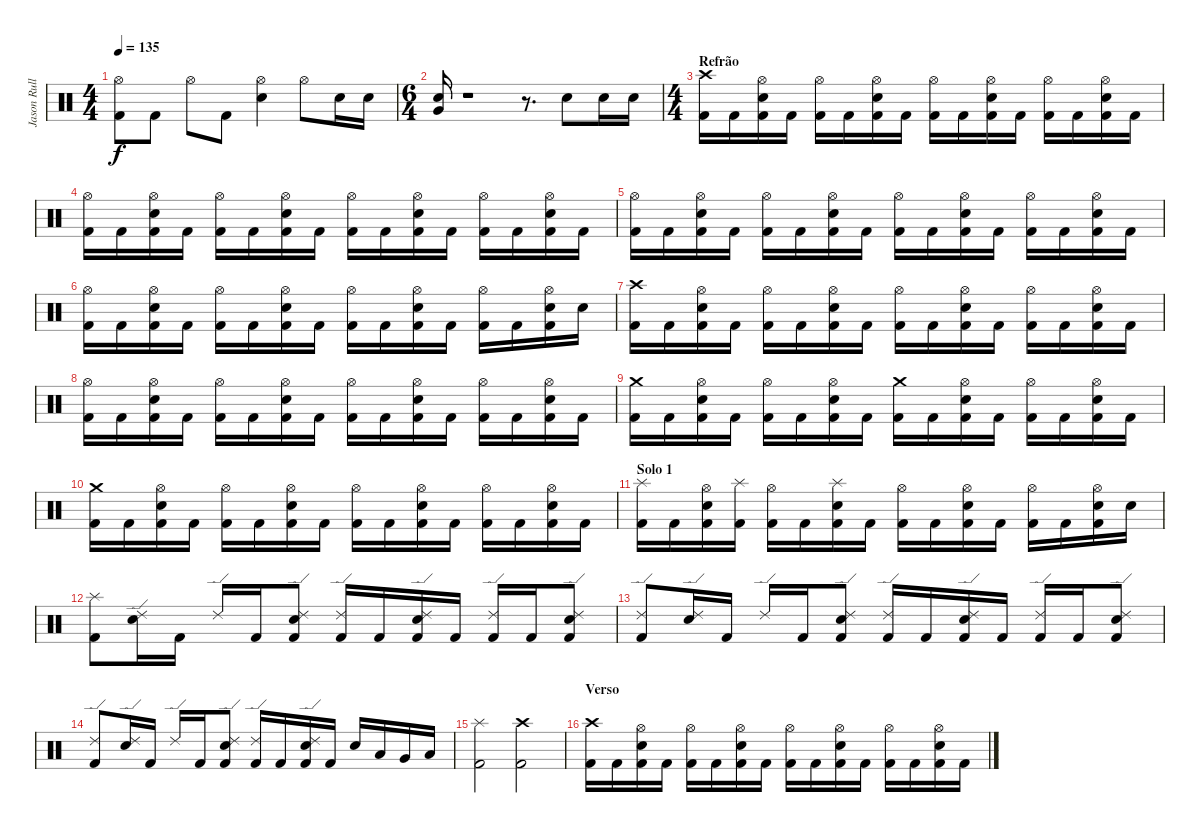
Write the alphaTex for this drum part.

\track ("Jason Rullo" "Jason Rull") {instrument percussion}
\staff {score}
\articulation defaults
\ts (4 4)
\tempo 135
\clef neutral
\ks c
("Kick (hit) 2" "Hi-Hat (open)").8{dy f} "Kick (hit) 2".8 "Hi-Hat (open)".8 "Kick (hit) 2".8 ("Electric Snare (hit)" "Hi-Hat (open)").4 "Hi-Hat (open)".8 "Electric Snare (hit)".16 "Electric Snare (hit)".16 |
\ts (6 4)
("Very Low Tom (hit)" "Electric Snare (hit)").16 r.1 r.8{d} "Electric Snare (hit)".8 "Electric Snare (hit)".16 "Electric Snare (hit)".16 |
\ts (4 4)
\section ("" "Refrão")
("Kick (hit) 2" "Crash high (hit)").16 "Kick (hit) 2".16 ("Hi-Hat (open)" "Electric Snare (hit)" "Kick (hit) 2").16 "Kick (hit) 2".16 ("Hi-Hat (open)" "Kick (hit) 2").16 "Kick (hit) 2".16 ("Hi-Hat (open)" "Electric Snare (hit)" "Kick (hit) 2").16 "Kick (hit) 2".16 ("Hi-Hat (open)" "Kick (hit) 2").16 "Kick (hit) 2".16 ("Hi-Hat (open)" "Electric Snare (hit)" "Kick (hit) 2").16 "Kick (hit) 2".16 ("Hi-Hat (open)" "Kick (hit) 2").16 "Kick (hit) 2".16 ("Hi-Hat (open)" "Electric Snare (hit)" "Kick (hit) 2").16 "Kick (hit) 2".16 |
("Kick (hit) 2" "Hi-Hat (open)").16 "Kick (hit) 2".16 ("Kick (hit) 2" "Electric Snare (hit)" "Hi-Hat (open)").16 "Kick (hit) 2".16 ("Kick (hit) 2" "Hi-Hat (open)").16 "Kick (hit) 2".16 ("Kick (hit) 2" "Electric Snare (hit)" "Hi-Hat (open)").16 "Kick (hit) 2".16 ("Kick (hit) 2" "Hi-Hat (open)").16 "Kick (hit) 2".16 ("Kick (hit) 2" "Electric Snare (hit)" "Hi-Hat (open)").16 "Kick (hit) 2".16 ("Kick (hit) 2" "Hi-Hat (open)").16 "Kick (hit) 2".16 ("Kick (hit) 2" "Electric Snare (hit)" "Hi-Hat (open)").16 "Kick (hit) 2".16 |
("Kick (hit) 2" "Hi-Hat (open)").16 "Kick (hit) 2".16 ("Kick (hit) 2" "Electric Snare (hit)" "Hi-Hat (open)").16 "Kick (hit) 2".16 ("Kick (hit) 2" "Hi-Hat (open)").16 "Kick (hit) 2".16 ("Kick (hit) 2" "Electric Snare (hit)" "Hi-Hat (open)").16 "Kick (hit) 2".16 ("Kick (hit) 2" "Hi-Hat (open)").16 "Kick (hit) 2".16 ("Kick (hit) 2" "Electric Snare (hit)" "Hi-Hat (open)").16 "Kick (hit) 2".16 ("Kick (hit) 2" "Hi-Hat (open)").16 "Kick (hit) 2".16 ("Kick (hit) 2" "Electric Snare (hit)" "Hi-Hat (open)").16 "Kick (hit) 2".16 |
("Kick (hit) 2" "Hi-Hat (open)").16 "Kick (hit) 2".16 ("Kick (hit) 2" "Electric Snare (hit)" "Hi-Hat (open)").16 "Kick (hit) 2".16 ("Kick (hit) 2" "Hi-Hat (open)").16 "Kick (hit) 2".16 ("Kick (hit) 2" "Electric Snare (hit)" "Hi-Hat (open)").16 "Kick (hit) 2".16 ("Kick (hit) 2" "Hi-Hat (open)").16 "Kick (hit) 2".16 ("Kick (hit) 2" "Electric Snare (hit)" "Hi-Hat (open)").16 "Kick (hit) 2".16 ("Kick (hit) 2" "Hi-Hat (open)").16 "Kick (hit) 2".16 ("Kick (hit) 2" "Electric Snare (hit)" "Hi-Hat (open)").16 "Electric Snare (hit)".16 |
("Kick (hit) 2" "Crash high (hit)").16 "Kick (hit) 2".16 ("Hi-Hat (open)" "Electric Snare (hit)" "Kick (hit) 2").16 "Kick (hit) 2".16 ("Hi-Hat (open)" "Kick (hit) 2").16 "Kick (hit) 2".16 ("Hi-Hat (open)" "Electric Snare (hit)" "Kick (hit) 2").16 "Kick (hit) 2".16 ("Hi-Hat (open)" "Kick (hit) 2").16 "Kick (hit) 2".16 ("Hi-Hat (open)" "Electric Snare (hit)" "Kick (hit) 2").16 "Kick (hit) 2".16 ("Hi-Hat (open)" "Kick (hit) 2").16 "Kick (hit) 2".16 ("Hi-Hat (open)" "Electric Snare (hit)" "Kick (hit) 2").16 "Kick (hit) 2".16 |
("Kick (hit) 2" "Hi-Hat (open)").16 "Kick (hit) 2".16 ("Kick (hit) 2" "Electric Snare (hit)" "Hi-Hat (open)").16 "Kick (hit) 2".16 ("Kick (hit) 2" "Hi-Hat (open)").16 "Kick (hit) 2".16 ("Kick (hit) 2" "Electric Snare (hit)" "Hi-Hat (open)").16 "Kick (hit) 2".16 ("Kick (hit) 2" "Hi-Hat (open)").16 "Kick (hit) 2".16 ("Kick (hit) 2" "Electric Snare (hit)" "Hi-Hat (open)").16 "Kick (hit) 2".16 ("Kick (hit) 2" "Hi-Hat (open)").16 "Kick (hit) 2".16 ("Kick (hit) 2" "Electric Snare (hit)" "Hi-Hat (open)").16 "Kick (hit) 2".16 |
("Crash medium (hit)" "Kick (hit) 2").16 "Kick (hit) 2".16 ("Kick (hit) 2" "Electric Snare (hit)" "Hi-Hat (open)").16 "Kick (hit) 2".16 ("Kick (hit) 2" "Hi-Hat (open)").16 "Kick (hit) 2".16 ("Kick (hit) 2" "Electric Snare (hit)" "Hi-Hat (open)").16 "Kick (hit) 2".16 ("Crash medium (hit)" "Kick (hit) 2").16 "Kick (hit) 2".16 ("Kick (hit) 2" "Electric Snare (hit)" "Hi-Hat (open)").16 "Kick (hit) 2".16 ("Kick (hit) 2" "Hi-Hat (open)").16 "Kick (hit) 2".16 ("Kick (hit) 2" "Electric Snare (hit)" "Hi-Hat (open)").16 "Kick (hit) 2".16 |
("Crash medium (hit)" "Kick (hit) 2").16 "Kick (hit) 2".16 ("Kick (hit) 2" "Electric Snare (hit)" "Hi-Hat (open)").16 "Kick (hit) 2".16 ("Kick (hit) 2" "Hi-Hat (open)").16 "Kick (hit) 2".16 ("Kick (hit) 2" "Electric Snare (hit)" "Hi-Hat (open)").16 "Kick (hit) 2".16 ("Kick (hit) 2" "Hi-Hat (open)").16 "Kick (hit) 2".16 ("Kick (hit) 2" "Electric Snare (hit)" "Hi-Hat (open)").16 "Kick (hit) 2".16 ("Kick (hit) 2" "Hi-Hat (open)").16 "Kick (hit) 2".16 ("Kick (hit) 2" "Electric Snare (hit)" "Hi-Hat (open)").16 "Kick (hit) 2".16 |
\section ("" "Solo 1")
("Splash (hit)" "Kick (hit) 2").16 "Kick (hit) 2".16 ("Hi-Hat (open)" "Kick (hit) 2" "Electric Snare (hit)").16 ("Splash (hit)" "Kick (hit) 2").16 ("Hi-Hat (open)" "Kick (hit) 2").16 "Kick (hit) 2".16 ("Splash (hit)" "Kick (hit) 2" "Electric Snare (hit)").16 "Kick (hit) 2".16 ("Kick (hit) 2" "Hi-Hat (open)").16 "Kick (hit) 2".16 ("Kick (hit) 2" "Electric Snare (hit)" "Hi-Hat (open)").16 "Kick (hit) 2".16 ("Kick (hit) 2" "Hi-Hat (open)").16 "Kick (hit) 2".16 ("Kick (hit) 2" "Electric Snare (hit)" "Hi-Hat (open)").16 "Electric Snare (hit)".16 |
("Splash (hit)" "Kick (hit) 2").8 ("Ride (edge) 2" "Electric Snare (hit)").16 "Kick (hit) 2".16 "Ride (edge) 2".16 "Kick (hit) 2".16 ("Ride (edge) 2" "Kick (hit) 2" "Electric Snare (hit)").8 ("Ride (edge) 2" "Kick (hit) 2").16 "Kick (hit) 2".16 ("Ride (edge) 2" "Kick (hit) 2" "Electric Snare (hit)").16 "Kick (hit) 2".16 ("Ride (edge) 2" "Kick (hit) 2").16 "Kick (hit) 2".16 ("Ride (edge) 2" "Kick (hit) 2" "Electric Snare (hit)").8 |
("Ride (edge) 2" "Kick (hit) 2").8 ("Ride (edge) 2" "Electric Snare (hit)").16 "Kick (hit) 2".16 "Ride (edge) 2".16 "Kick (hit) 2".16 ("Ride (edge) 2" "Kick (hit) 2" "Electric Snare (hit)").8 ("Ride (edge) 2" "Kick (hit) 2").16 "Kick (hit) 2".16 ("Ride (edge) 2" "Kick (hit) 2" "Electric Snare (hit)").16 "Kick (hit) 2".16 ("Ride (edge) 2" "Kick (hit) 2").16 "Kick (hit) 2".16 ("Ride (edge) 2" "Kick (hit) 2" "Electric Snare (hit)").8 |
("Ride (edge) 2" "Kick (hit) 2").8 ("Ride (edge) 2" "Electric Snare (hit)").16 "Kick (hit) 2".16 "Ride (edge) 2".16 "Kick (hit) 2".16 ("Ride (edge) 2" "Kick (hit) 2" "Electric Snare (hit)").8 ("Ride (edge) 2" "Kick (hit) 2").16 "Kick (hit) 2".16 ("Ride (edge) 2" "Kick (hit) 2" "Electric Snare (hit)").16 "Kick (hit) 2".16 "Electric Snare (hit)".16 "Low Tom (hit)".16 "Very Low Tom (hit)".16 "Low Floor Tom (hit)".16 |
("Splash (hit)" "Kick (hit) 2").2 ("Crash high (hit)" "Kick (hit) 2").2 |
\section ("" "Verso")
("Kick (hit) 2" "Crash high (hit)").16 "Kick (hit) 2".16 ("Hi-Hat (open)" "Electric Snare (hit)" "Kick (hit) 2").16 "Kick (hit) 2".16 ("Hi-Hat (open)" "Kick (hit) 2").16 "Kick (hit) 2".16 ("Hi-Hat (open)" "Electric Snare (hit)" "Kick (hit) 2").16 "Kick (hit) 2".16 ("Hi-Hat (open)" "Kick (hit) 2").16 "Kick (hit) 2".16 ("Hi-Hat (open)" "Electric Snare (hit)" "Kick (hit) 2").16 "Kick (hit) 2".16 ("Hi-Hat (open)" "Kick (hit) 2").16 "Kick (hit) 2".16 ("Hi-Hat (open)" "Electric Snare (hit)" "Kick (hit) 2").16 "Kick (hit) 2".16
